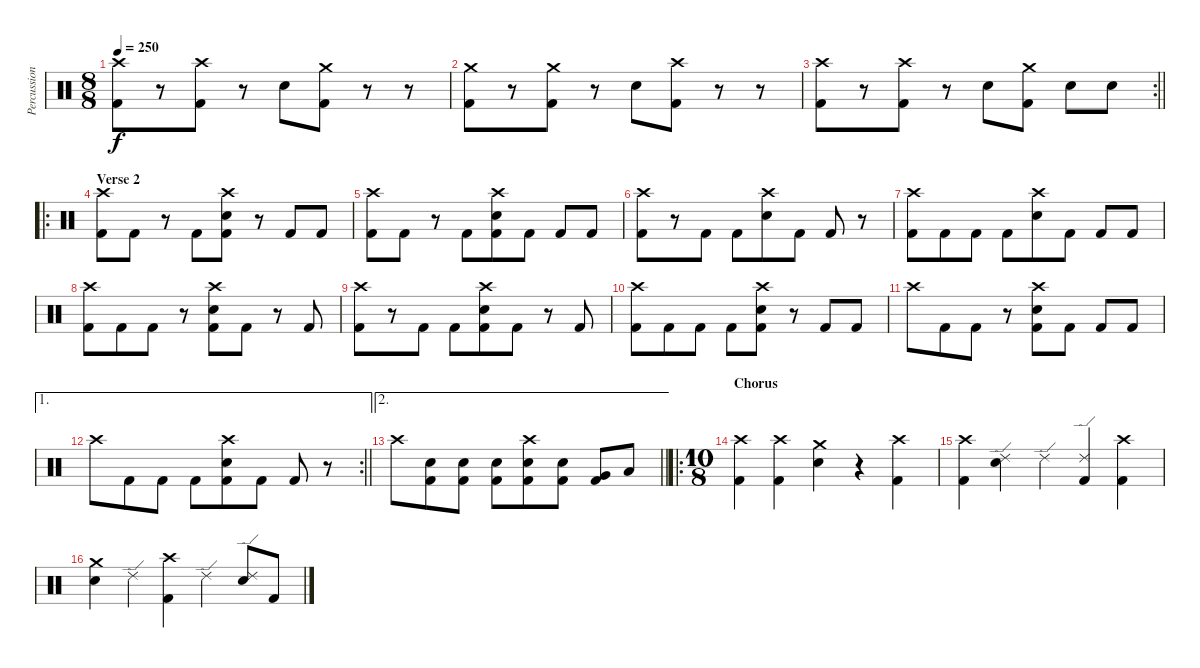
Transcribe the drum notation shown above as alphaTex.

\track ("Percussions" "Percussion") {instrument percussion}
\staff {score}
\articulation defaults
\ts (8 8)
\tempo 250
\clef neutral
\ks c
("Crash high (hit)" "Kick (hit) 2").8{dy f} r.8 ("Crash high (hit)" "Kick (hit) 2").8 r.8 "Electric Snare (hit)".8 ("Crash medium (hit)" "Kick (hit) 2").8 r.8 r.8 |
("Crash medium (hit)" "Kick (hit) 2").8 r.8 ("Crash medium (hit)" "Kick (hit) 2").8 r.8 "Electric Snare (hit)".8 ("Crash high (hit)" "Kick (hit) 2").8 r.8 r.8 |
\rc 2
\barLineRight lightlight
("Crash high (hit)" "Kick (hit) 2").8 r.8 ("Crash high (hit)" "Kick (hit) 2").8 r.8 "Electric Snare (hit)".8 ("Crash medium (hit)" "Kick (hit) 2").8 "Electric Snare (hit)".8 "Electric Snare (hit)".8 |
\ro
\section ("" "Verse 2")
("Crash high (hit)" "Kick (hit) 2").8 "Kick (hit) 2".8 r.8 "Kick (hit) 2".8 ("Crash high (hit)" "Electric Snare (hit)" "Kick (hit) 2").8 r.8 "Kick (hit) 2".8 "Kick (hit) 2".8 |
("Crash high (hit)" "Kick (hit) 2").8 "Kick (hit) 2".8 r.8 "Kick (hit) 2".8 ("Crash high (hit)" "Electric Snare (hit)" "Kick (hit) 2").8 "Kick (hit) 2".8 "Kick (hit) 2".8 "Kick (hit) 2".8 |
("Crash high (hit)" "Kick (hit) 2").8 r.8 "Kick (hit) 2".8 "Kick (hit) 2".8 ("Crash high (hit)" "Electric Snare (hit)").8 "Kick (hit) 2".8 "Kick (hit) 2".8 r.8 |
("Crash high (hit)" "Kick (hit) 2").8 "Kick (hit) 2".8 "Kick (hit) 2".8 "Kick (hit) 2".8 ("Crash high (hit)" "Electric Snare (hit)").8 "Kick (hit) 2".8 "Kick (hit) 2".8 "Kick (hit) 2".8 |
("Crash high (hit)" "Kick (hit) 2").8 "Kick (hit) 2".8 "Kick (hit) 2".8 r.8 ("Crash high (hit)" "Electric Snare (hit)" "Kick (hit) 2").8 "Kick (hit) 2".8 r.8 "Kick (hit) 2".8 |
("Crash high (hit)" "Kick (hit) 2").8 r.8 "Kick (hit) 2".8 "Kick (hit) 2".8 ("Crash high (hit)" "Electric Snare (hit)" "Kick (hit) 2").8 "Kick (hit) 2".8 r.8 "Kick (hit) 2".8 |
("Crash high (hit)" "Kick (hit) 2").8 "Kick (hit) 2".8 "Kick (hit) 2".8 "Kick (hit) 2".8 ("Crash high (hit)" "Electric Snare (hit)" "Kick (hit) 2").8 r.8 "Kick (hit) 2".8 "Kick (hit) 2".8 |
"Crash high (hit)".8 "Kick (hit) 2".8 "Kick (hit) 2".8 r.8 ("Crash high (hit)" "Electric Snare (hit)" "Kick (hit) 2").8 "Kick (hit) 2".8 "Kick (hit) 2".8 "Kick (hit) 2".8 |
\ae 1
\rc 2
\barLineRight lightlight "Crash high (hit)".8 "Kick (hit) 2".8 "Kick (hit) 2".8 "Kick (hit) 2".8
("Crash high (hit)" "Electric Snare (hit)" "Kick (hit) 2").8 "Kick (hit) 2".8 "Kick (hit) 2".8 r.8 |
\ae 2
\barLineRight lightlight "Crash high (hit)".8
("Electric Snare (hit)" "Kick (hit) 2").8 ("Electric Snare (hit)" "Kick (hit) 2").8 ("Electric Snare (hit)" "Kick (hit) 2").8 ("Crash high (hit)" "Electric Snare (hit)" "Kick (hit) 2").8 ("Electric Snare (hit)" "Kick (hit) 2").8 ("Very Low Tom (hit)" "Kick (hit) 2").8 "Low Floor Tom (hit)".8 |
\ro
\ts (10 8)
\section ("" "Chorus")
("Crash high (hit)" "Kick (hit) 2").4 ("Crash high (hit)" "Kick (hit) 2").4 ("Crash medium (hit)" "Electric Snare (hit)").4 r.4 ("Crash high (hit)" "Kick (hit) 2").4 |
("Crash high (hit)" "Kick (hit) 2").4 ("Ride (edge) 2" "Electric Snare (hit)").4 "Ride (edge) 2".4 ("Ride (edge) 2" "Kick (hit) 2").4 ("Crash high (hit)" "Kick (hit) 2").4 |
("Crash medium (hit)" "Electric Snare (hit)").4 "Ride (edge) 2".4 ("Crash high (hit)" "Kick (hit) 2").4 "Ride (edge) 2".4 ("Ride (edge) 2" "Electric Snare (hit)").8 "Kick (hit) 2".8
